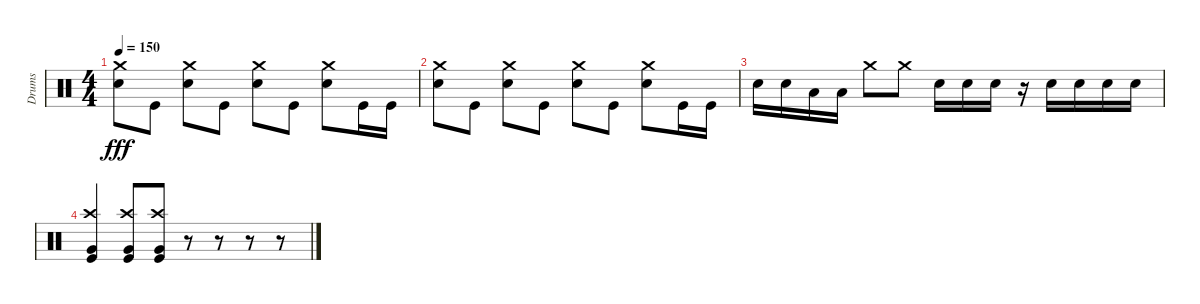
\track ("Drums" "Drums") {instrument percussion}
\staff {score}
\articulation defaults
\ts (4 4)
\tempo 150
\clef neutral
\ks c
("Crash medium (hit)" "Snare (hit) 2").8{dy fff} "Kick (hit)".8 ("Crash medium (hit)" "Snare (hit) 2").8 "Kick (hit)".8 ("Crash medium (hit)" "Snare (hit) 2").8 "Kick (hit)".8 ("Crash medium (hit)" "Snare (hit) 2").8 "Kick (hit)".16 "Kick (hit)".16 |
("Crash medium (hit)" "Snare (hit) 2").8 "Kick (hit)".8 ("Crash medium (hit)" "Snare (hit) 2").8 "Kick (hit)".8 ("Crash medium (hit)" "Snare (hit) 2").8 "Kick (hit)".8 ("Crash medium (hit)" "Snare (hit) 2").8 "Kick (hit)".16 "Kick (hit)".16 |
"Snare (hit) 2".16 "Snare (hit) 2".16 "Low Tom (hit)".16 "Low Tom (hit)".16 "Crash medium (hit)".8 "Crash medium (hit)".8 "Snare (hit) 2".16 "Snare (hit) 2".16 "Snare (hit) 2".16 r.16 "Snare (hit) 2".16 "Snare (hit) 2".16 "Snare (hit) 2".16 "Snare (hit) 2".16 |
("Crash high (hit)" "Very Low Tom (hit)" "Kick (hit)").4 ("Crash high (hit)" "Very Low Tom (hit)" "Kick (hit)").8 ("Crash high (hit)" "Very Low Tom (hit)" "Kick (hit)").8 r.8 r.8 r.8 r.8
